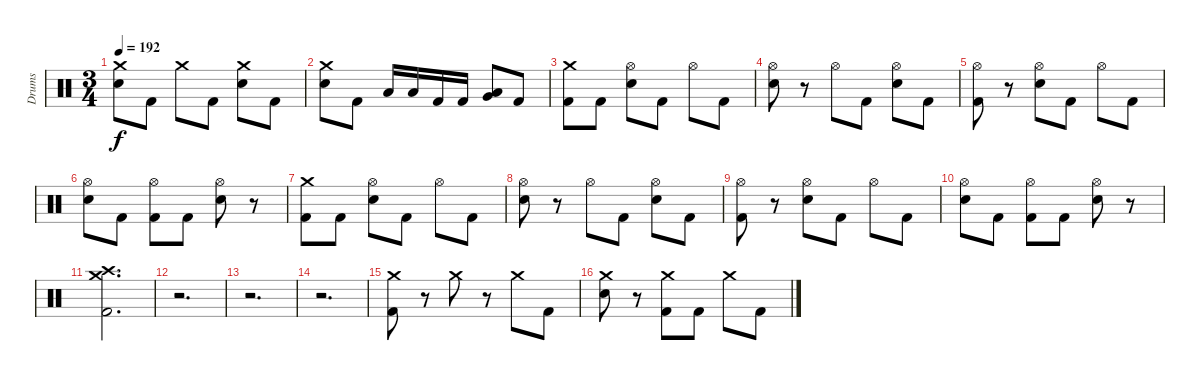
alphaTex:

\track ("Drums" "Drums") {instrument percussion}
\staff {score}
\articulation defaults
\ts (3 4)
\tempo 192
\clef neutral
\ks c
("Crash medium (hit)" "Electric Snare (hit)").8{dy f} "Kick (hit) 2".8 "Crash medium (hit)".8 "Kick (hit) 2".8 ("Crash medium (hit)" "Electric Snare (hit)").8 "Kick (hit) 2".8 |
("Crash medium (hit)" "Electric Snare (hit)").8 "Kick (hit) 2".8 "Low Tom (hit)".16 "Low Tom (hit)".16 "Kick (hit) 2".16 "Kick (hit) 2".16 ("Low Floor Tom (hit)" "Very Low Tom (hit)").8 "Kick (hit) 2".8 |
("Crash medium (hit)" "Kick (hit) 2").8 "Kick (hit) 2".8 ("Hi-Hat (open)" "Electric Snare (hit)").8 "Kick (hit) 2".8 "Hi-Hat (open)".8 "Kick (hit) 2".8 |
("Hi-Hat (open)" "Electric Snare (hit)").8 r.8 "Hi-Hat (open)".8 "Kick (hit) 2".8 ("Hi-Hat (open)" "Electric Snare (hit)").8 "Kick (hit) 2".8 |
("Hi-Hat (open)" "Kick (hit) 2").8 r.8 ("Hi-Hat (open)" "Electric Snare (hit)").8 "Kick (hit) 2".8 "Hi-Hat (open)".8 "Kick (hit) 2".8 |
("Hi-Hat (open)" "Electric Snare (hit)").8 "Kick (hit) 2".8 ("Hi-Hat (open)" "Kick (hit) 2").8 "Kick (hit) 2".8 ("Hi-Hat (open)" "Electric Snare (hit)").8 r.8 |
("Crash medium (hit)" "Kick (hit) 2").8 "Kick (hit) 2".8 ("Hi-Hat (open)" "Electric Snare (hit)").8 "Kick (hit) 2".8 "Hi-Hat (open)".8 "Kick (hit) 2".8 |
("Hi-Hat (open)" "Electric Snare (hit)").8 r.8 "Hi-Hat (open)".8 "Kick (hit) 2".8 ("Hi-Hat (open)" "Electric Snare (hit)").8 "Kick (hit) 2".8 |
("Hi-Hat (open)" "Kick (hit) 2").8 r.8 ("Hi-Hat (open)" "Electric Snare (hit)").8 "Kick (hit) 2".8 "Hi-Hat (open)".8 "Kick (hit) 2".8 |
("Hi-Hat (open)" "Electric Snare (hit)").8 "Kick (hit) 2".8 ("Hi-Hat (open)" "Kick (hit) 2").8 "Kick (hit) 2".8 ("Hi-Hat (open)" "Electric Snare (hit)").8 r.8 |
("Crash medium (hit)" "Crash high (hit)" "Kick (hit) 2").2{d} |
r.2{d} |
r.2{d} |
r.2{d} |
("Crash medium (hit)" "Kick (hit) 2").8 r.8 "Crash medium (hit)".8 r.8 "Crash medium (hit)".8 "Kick (hit) 2".8 |
("Crash medium (hit)" "Electric Snare (hit)").8 r.8 ("Crash medium (hit)" "Kick (hit) 2").8 "Kick (hit) 2".8 "Crash medium (hit)".8 "Kick (hit) 2".8
